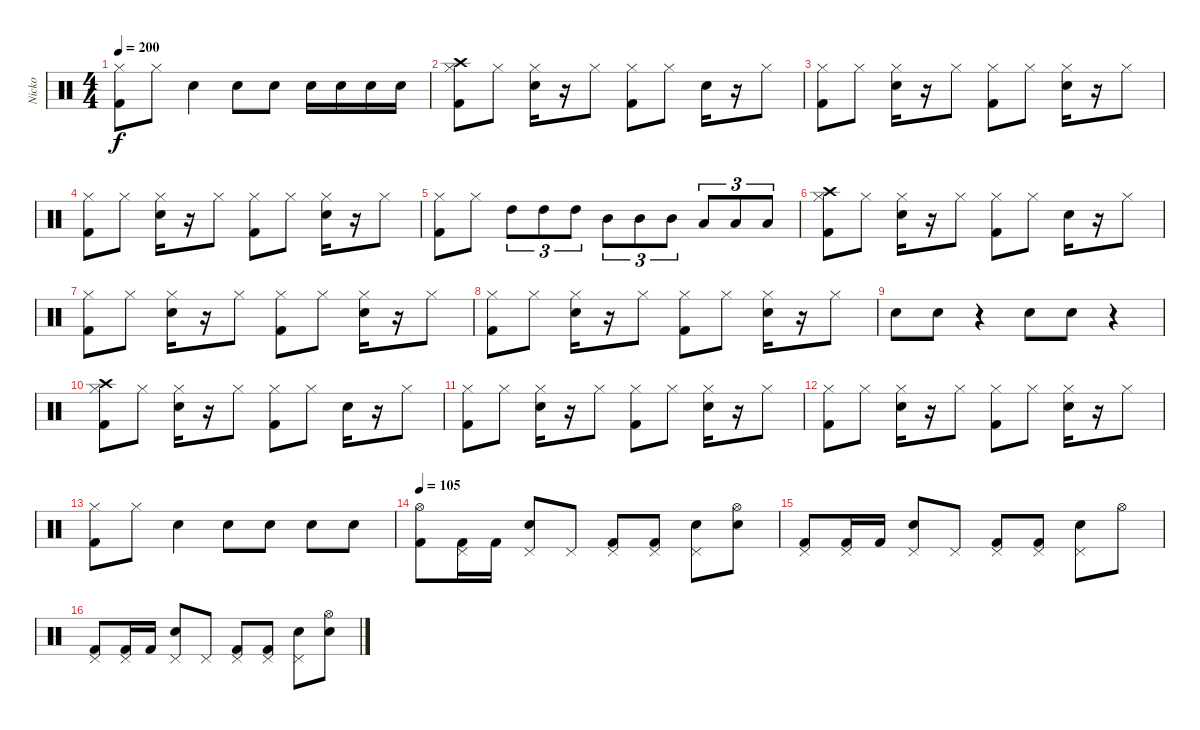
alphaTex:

\track ("Nicko" "Nicko") {instrument percussion}
\staff {score}
\articulation defaults
\ts (4 4)
\tempo 200
\clef neutral
\ks c
("Kick (hit) 2" "Hi-Hat (closed)").8{dy f} "Hi-Hat (closed)".8 "Snare (hit) 2".4 "Snare (hit) 2".8 "Snare (hit) 2".8 "Snare (hit) 2".16 "Snare (hit) 2".16 "Snare (hit) 2".16 "Snare (hit) 2".16 |
("Kick (hit) 2" "Hi-Hat (closed)" "Crash high (hit)").8 "Hi-Hat (closed)".8 ("Snare (hit) 2" "Hi-Hat (closed)").16 r.16 "Hi-Hat (closed)".8 ("Kick (hit) 2" "Hi-Hat (closed)").8 "Hi-Hat (closed)".8 "Snare (hit) 2".16 r.16 "Hi-Hat (closed)".8 |
("Kick (hit) 2" "Hi-Hat (closed)").8 "Hi-Hat (closed)".8 ("Snare (hit) 2" "Hi-Hat (closed)").16 r.16 "Hi-Hat (closed)".8 ("Kick (hit) 2" "Hi-Hat (closed)").8 "Hi-Hat (closed)".8 ("Snare (hit) 2" "Hi-Hat (closed)").16 r.16 "Hi-Hat (closed)".8 |
("Kick (hit) 2" "Hi-Hat (closed)").8 "Hi-Hat (closed)".8 ("Snare (hit) 2" "Hi-Hat (closed)").16 r.16 "Hi-Hat (closed)".8 ("Kick (hit) 2" "Hi-Hat (closed)").8 "Hi-Hat (closed)".8 ("Snare (hit) 2" "Hi-Hat (closed)").16 r.16 "Hi-Hat (closed)".8 |
("Kick (hit) 2" "Hi-Hat (closed)").8 "Hi-Hat (closed)".8 "High Tom (hit)".8{tu (3 2)} "High Tom (hit)".8{tu (3 2)} "High Tom (hit)".8{tu (3 2)} "Mid Tom (hit)".8{tu (3 2)} "Mid Tom (hit)".8{tu (3 2)} "Mid Tom (hit)".8{tu (3 2)} "Low Tom (hit)".8{tu (3 2)} "Low Tom (hit)".8{tu (3 2)} "Low Tom (hit)".8{tu (3 2)} |
("Kick (hit) 2" "Hi-Hat (closed)" "Crash high (hit)").8 "Hi-Hat (closed)".8 ("Snare (hit) 2" "Hi-Hat (closed)").16 r.16 "Hi-Hat (closed)".8 ("Kick (hit) 2" "Hi-Hat (closed)").8 "Hi-Hat (closed)".8 "Snare (hit) 2".16 r.16 "Hi-Hat (closed)".8 |
("Kick (hit) 2" "Hi-Hat (closed)").8 "Hi-Hat (closed)".8 ("Snare (hit) 2" "Hi-Hat (closed)").16 r.16 "Hi-Hat (closed)".8 ("Kick (hit) 2" "Hi-Hat (closed)").8 "Hi-Hat (closed)".8 ("Snare (hit) 2" "Hi-Hat (closed)").16 r.16 "Hi-Hat (closed)".8 |
("Kick (hit) 2" "Hi-Hat (closed)").8 "Hi-Hat (closed)".8 ("Snare (hit) 2" "Hi-Hat (closed)").16 r.16 "Hi-Hat (closed)".8 ("Kick (hit) 2" "Hi-Hat (closed)").8 "Hi-Hat (closed)".8 ("Snare (hit) 2" "Hi-Hat (closed)").16 r.16 "Hi-Hat (closed)".8 |
"Snare (hit) 2".8 "Snare (hit) 2".8 r.4 "Snare (hit) 2".8 "Snare (hit) 2".8 r.4 |
("Kick (hit) 2" "Hi-Hat (closed)" "Crash high (hit)").8 "Hi-Hat (closed)".8 ("Snare (hit) 2" "Hi-Hat (closed)").16 r.16 "Hi-Hat (closed)".8 ("Kick (hit) 2" "Hi-Hat (closed)").8 "Hi-Hat (closed)".8 "Snare (hit) 2".16 r.16 "Hi-Hat (closed)".8 |
("Kick (hit) 2" "Hi-Hat (closed)").8 "Hi-Hat (closed)".8 ("Snare (hit) 2" "Hi-Hat (closed)").16 r.16 "Hi-Hat (closed)".8 ("Kick (hit) 2" "Hi-Hat (closed)").8 "Hi-Hat (closed)".8 ("Snare (hit) 2" "Hi-Hat (closed)").16 r.16 "Hi-Hat (closed)".8 |
("Kick (hit) 2" "Hi-Hat (closed)").8 "Hi-Hat (closed)".8 ("Snare (hit) 2" "Hi-Hat (closed)").16 r.16 "Hi-Hat (closed)".8 ("Kick (hit) 2" "Hi-Hat (closed)").8 "Hi-Hat (closed)".8 ("Snare (hit) 2" "Hi-Hat (closed)").16 r.16 "Hi-Hat (closed)".8 |
("Kick (hit) 2" "Hi-Hat (closed)").8 "Hi-Hat (closed)".8 "Snare (hit) 2".4 "Snare (hit) 2".8 "Snare (hit) 2".8 "Snare (hit) 2".8 "Snare (hit) 2".8 |
\tempo 105
("Kick (hit) 2" "Hi-Hat (open)").8 ("Kick (hit) 2" "Pedal Hi-Hat (hit)").16 "Kick (hit) 2".16 ("Snare (hit) 2" "Pedal Hi-Hat (hit)").8 "Pedal Hi-Hat (hit)".8 ("Kick (hit) 2" "Pedal Hi-Hat (hit)").8 ("Kick (hit) 2" "Pedal Hi-Hat (hit)").8 ("Snare (hit) 2" "Pedal Hi-Hat (hit)").8 ("Snare (hit) 2" "Hi-Hat (open)").8 |
("Kick (hit) 2" "Pedal Hi-Hat (hit)").8 ("Kick (hit) 2" "Pedal Hi-Hat (hit)").16 "Kick (hit) 2".16 ("Snare (hit) 2" "Pedal Hi-Hat (hit)").8 "Pedal Hi-Hat (hit)".8 ("Kick (hit) 2" "Pedal Hi-Hat (hit)").8 ("Kick (hit) 2" "Pedal Hi-Hat (hit)").8 ("Snare (hit) 2" "Pedal Hi-Hat (hit)").8 "Hi-Hat (open)".8 |
("Kick (hit) 2" "Pedal Hi-Hat (hit)").8 ("Kick (hit) 2" "Pedal Hi-Hat (hit)").16 "Kick (hit) 2".16 ("Snare (hit) 2" "Pedal Hi-Hat (hit)").8 "Pedal Hi-Hat (hit)".8 ("Kick (hit) 2" "Pedal Hi-Hat (hit)").8 ("Kick (hit) 2" "Pedal Hi-Hat (hit)").8 ("Snare (hit) 2" "Pedal Hi-Hat (hit)").8 ("Snare (hit) 2" "Hi-Hat (open)").8
